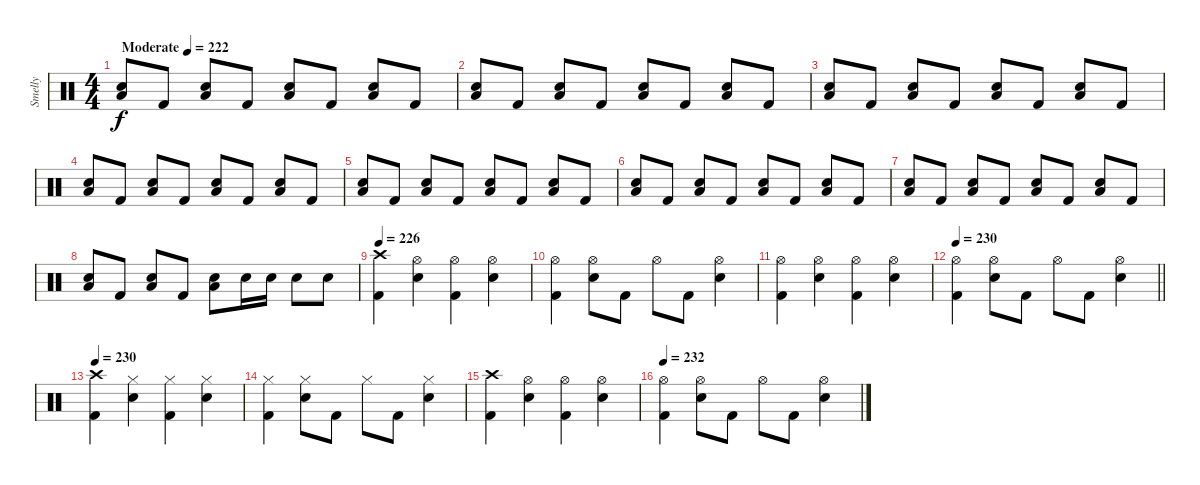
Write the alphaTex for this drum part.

\track ("Smelly" "Smelly") {instrument percussion}
\staff {score}
\articulation defaults
\ts (4 4)
\tempo (222 "Moderate")
\clef neutral
\ks c
("Electric Snare (hit)" "Low Floor Tom (hit)").8{dy f} "Kick (hit) 2".8 ("Electric Snare (hit)" "Low Floor Tom (hit)").8 "Kick (hit) 2".8 ("Electric Snare (hit)" "Low Floor Tom (hit)").8 "Kick (hit) 2".8 ("Electric Snare (hit)" "Low Floor Tom (hit)").8 "Kick (hit) 2".8 |
("Electric Snare (hit)" "Low Floor Tom (hit)").8 "Kick (hit) 2".8 ("Electric Snare (hit)" "Low Floor Tom (hit)").8 "Kick (hit) 2".8 ("Electric Snare (hit)" "Low Floor Tom (hit)").8 "Kick (hit) 2".8 ("Electric Snare (hit)" "Low Floor Tom (hit)").8 "Kick (hit) 2".8 |
("Electric Snare (hit)" "Low Floor Tom (hit)").8 "Kick (hit) 2".8 ("Electric Snare (hit)" "Low Floor Tom (hit)").8 "Kick (hit) 2".8 ("Electric Snare (hit)" "Low Floor Tom (hit)").8 "Kick (hit) 2".8 ("Electric Snare (hit)" "Low Floor Tom (hit)").8 "Kick (hit) 2".8 |
("Electric Snare (hit)" "Low Floor Tom (hit)").8 "Kick (hit) 2".8 ("Electric Snare (hit)" "Low Floor Tom (hit)").8 "Kick (hit) 2".8 ("Electric Snare (hit)" "Low Floor Tom (hit)").8 "Kick (hit) 2".8 ("Electric Snare (hit)" "Low Floor Tom (hit)").8 "Kick (hit) 2".8 |
("Electric Snare (hit)" "Low Floor Tom (hit)").8 "Kick (hit) 2".8 ("Electric Snare (hit)" "Low Floor Tom (hit)").8 "Kick (hit) 2".8 ("Electric Snare (hit)" "Low Floor Tom (hit)").8 "Kick (hit) 2".8 ("Electric Snare (hit)" "Low Floor Tom (hit)").8 "Kick (hit) 2".8 |
("Electric Snare (hit)" "Low Floor Tom (hit)").8 "Kick (hit) 2".8 ("Electric Snare (hit)" "Low Floor Tom (hit)").8 "Kick (hit) 2".8 ("Electric Snare (hit)" "Low Floor Tom (hit)").8 "Kick (hit) 2".8 ("Electric Snare (hit)" "Low Floor Tom (hit)").8 "Kick (hit) 2".8 |
("Electric Snare (hit)" "Low Floor Tom (hit)").8 "Kick (hit) 2".8 ("Electric Snare (hit)" "Low Floor Tom (hit)").8 "Kick (hit) 2".8 ("Electric Snare (hit)" "Low Floor Tom (hit)").8 "Kick (hit) 2".8 ("Electric Snare (hit)" "Low Floor Tom (hit)").8 "Kick (hit) 2".8 |
("Electric Snare (hit)" "Low Floor Tom (hit)").8 "Kick (hit) 2".8 ("Electric Snare (hit)" "Low Floor Tom (hit)").8 "Kick (hit) 2".8 ("Electric Snare (hit)" "Low Floor Tom (hit)").8 "Electric Snare (hit)".16 "Electric Snare (hit)".16 "Electric Snare (hit)".8 "Electric Snare (hit)".8 |
\tempo 226
("Crash high (hit)" "Kick (hit) 2").4 ("Hi-Hat (open)" "Electric Snare (hit)").4 ("Hi-Hat (open)" "Kick (hit) 2").4 ("Hi-Hat (open)" "Electric Snare (hit)").4 |
("Hi-Hat (open)" "Kick (hit) 2").4 ("Hi-Hat (open)" "Electric Snare (hit)").8 "Kick (hit) 2".8 "Hi-Hat (open)".8 "Kick (hit) 2".8 ("Hi-Hat (open)" "Electric Snare (hit)").4 |
("Hi-Hat (open)" "Kick (hit) 2").4 ("Hi-Hat (open)" "Electric Snare (hit)").4 ("Hi-Hat (open)" "Kick (hit) 2").4 ("Hi-Hat (open)" "Electric Snare (hit)").4 |
\tempo 230
\barLineRight lightlight
("Hi-Hat (open)" "Kick (hit) 2").4 ("Hi-Hat (open)" "Electric Snare (hit)").8 "Kick (hit) 2".8 "Hi-Hat (open)".8 "Kick (hit) 2".8 ("Hi-Hat (open)" "Electric Snare (hit)").4 |
\section ("" "")
\tempo 230
("Crash high (hit)" "Kick (hit) 2").4 ("Hi-Hat (closed)" "Electric Snare (hit)").4 ("Hi-Hat (closed)" "Kick (hit) 2").4 ("Hi-Hat (closed)" "Electric Snare (hit)").4 |
("Hi-Hat (closed)" "Kick (hit) 2").4 ("Hi-Hat (closed)" "Electric Snare (hit)").8 "Kick (hit) 2".8 "Hi-Hat (closed)".8 "Kick (hit) 2".8 ("Hi-Hat (closed)" "Electric Snare (hit)").4 |
("Crash high (hit)" "Kick (hit) 2").4 ("Hi-Hat (open)" "Electric Snare (hit)").4 ("Hi-Hat (open)" "Kick (hit) 2").4 ("Hi-Hat (open)" "Electric Snare (hit)").4 |
\tempo 232
("Hi-Hat (open)" "Kick (hit) 2").4 ("Hi-Hat (open)" "Electric Snare (hit)").8 "Kick (hit) 2".8 "Hi-Hat (open)".8 "Kick (hit) 2".8 ("Hi-Hat (open)" "Electric Snare (hit)").4
